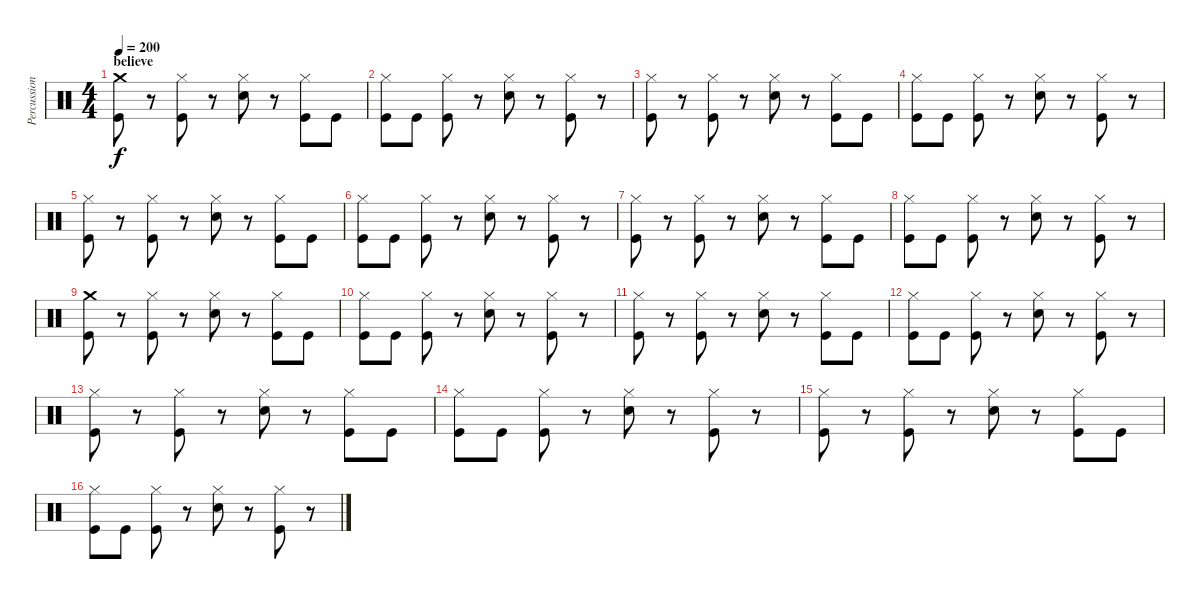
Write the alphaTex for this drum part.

\track ("Percussion" "Percussion") {instrument percussion}
\staff {score}
\articulation defaults
\ts (4 4)
\section ("" "believe")
\tempo 200
\clef neutral
\ks c
("Crash medium (hit)" "Kick (hit)").8{dy f} r.8 ("Hi-Hat (closed)" "Kick (hit)").8 r.8 ("Hi-Hat (closed)" "Snare (hit) 2").8 r.8 ("Hi-Hat (closed)" "Kick (hit)").8 "Kick (hit)".8 |
("Hi-Hat (closed)" "Kick (hit)").8 "Kick (hit)".8 ("Hi-Hat (closed)" "Kick (hit)").8 r.8 ("Hi-Hat (closed)" "Snare (hit) 2").8 r.8 ("Hi-Hat (closed)" "Kick (hit)").8 r.8 |
("Hi-Hat (closed)" "Kick (hit)").8 r.8 ("Hi-Hat (closed)" "Kick (hit)").8 r.8 ("Hi-Hat (closed)" "Snare (hit) 2").8 r.8 ("Hi-Hat (closed)" "Kick (hit)").8 "Kick (hit)".8 |
("Hi-Hat (closed)" "Kick (hit)").8 "Kick (hit)".8 ("Hi-Hat (closed)" "Kick (hit)").8 r.8 ("Hi-Hat (closed)" "Snare (hit) 2").8 r.8 ("Hi-Hat (closed)" "Kick (hit)").8 r.8 |
("Hi-Hat (closed)" "Kick (hit)").8 r.8 ("Hi-Hat (closed)" "Kick (hit)").8 r.8 ("Hi-Hat (closed)" "Snare (hit) 2").8 r.8 ("Hi-Hat (closed)" "Kick (hit)").8 "Kick (hit)".8 |
("Hi-Hat (closed)" "Kick (hit)").8 "Kick (hit)".8 ("Hi-Hat (closed)" "Kick (hit)").8 r.8 ("Hi-Hat (closed)" "Snare (hit) 2").8 r.8 ("Hi-Hat (closed)" "Kick (hit)").8 r.8 |
("Hi-Hat (closed)" "Kick (hit)").8 r.8 ("Hi-Hat (closed)" "Kick (hit)").8 r.8 ("Hi-Hat (closed)" "Snare (hit) 2").8 r.8 ("Hi-Hat (closed)" "Kick (hit)").8 "Kick (hit)".8 |
("Hi-Hat (closed)" "Kick (hit)").8 "Kick (hit)".8 ("Hi-Hat (closed)" "Kick (hit)").8 r.8 ("Hi-Hat (closed)" "Snare (hit) 2").8 r.8 ("Hi-Hat (closed)" "Kick (hit)").8 r.8 |
("Crash medium (hit)" "Kick (hit)").8 r.8 ("Hi-Hat (closed)" "Kick (hit)").8 r.8 ("Hi-Hat (closed)" "Snare (hit) 2").8 r.8 ("Hi-Hat (closed)" "Kick (hit)").8 "Kick (hit)".8 |
("Hi-Hat (closed)" "Kick (hit)").8 "Kick (hit)".8 ("Hi-Hat (closed)" "Kick (hit)").8 r.8 ("Hi-Hat (closed)" "Snare (hit) 2").8 r.8 ("Hi-Hat (closed)" "Kick (hit)").8 r.8 |
("Hi-Hat (closed)" "Kick (hit)").8 r.8 ("Hi-Hat (closed)" "Kick (hit)").8 r.8 ("Hi-Hat (closed)" "Snare (hit) 2").8 r.8 ("Hi-Hat (closed)" "Kick (hit)").8 "Kick (hit)".8 |
("Hi-Hat (closed)" "Kick (hit)").8 "Kick (hit)".8 ("Hi-Hat (closed)" "Kick (hit)").8 r.8 ("Hi-Hat (closed)" "Snare (hit) 2").8 r.8 ("Hi-Hat (closed)" "Kick (hit)").8 r.8 |
("Hi-Hat (closed)" "Kick (hit)").8 r.8 ("Hi-Hat (closed)" "Kick (hit)").8 r.8 ("Hi-Hat (closed)" "Snare (hit) 2").8 r.8 ("Hi-Hat (closed)" "Kick (hit)").8 "Kick (hit)".8 |
("Hi-Hat (closed)" "Kick (hit)").8 "Kick (hit)".8 ("Hi-Hat (closed)" "Kick (hit)").8 r.8 ("Hi-Hat (closed)" "Snare (hit) 2").8 r.8 ("Hi-Hat (closed)" "Kick (hit)").8 r.8 |
("Hi-Hat (closed)" "Kick (hit)").8 r.8 ("Hi-Hat (closed)" "Kick (hit)").8 r.8 ("Hi-Hat (closed)" "Snare (hit) 2").8 r.8 ("Hi-Hat (closed)" "Kick (hit)").8 "Kick (hit)".8 |
("Hi-Hat (closed)" "Kick (hit)").8 "Kick (hit)".8 ("Hi-Hat (closed)" "Kick (hit)").8 r.8 ("Hi-Hat (closed)" "Snare (hit) 2").8 r.8 ("Hi-Hat (closed)" "Kick (hit)").8 r.8
